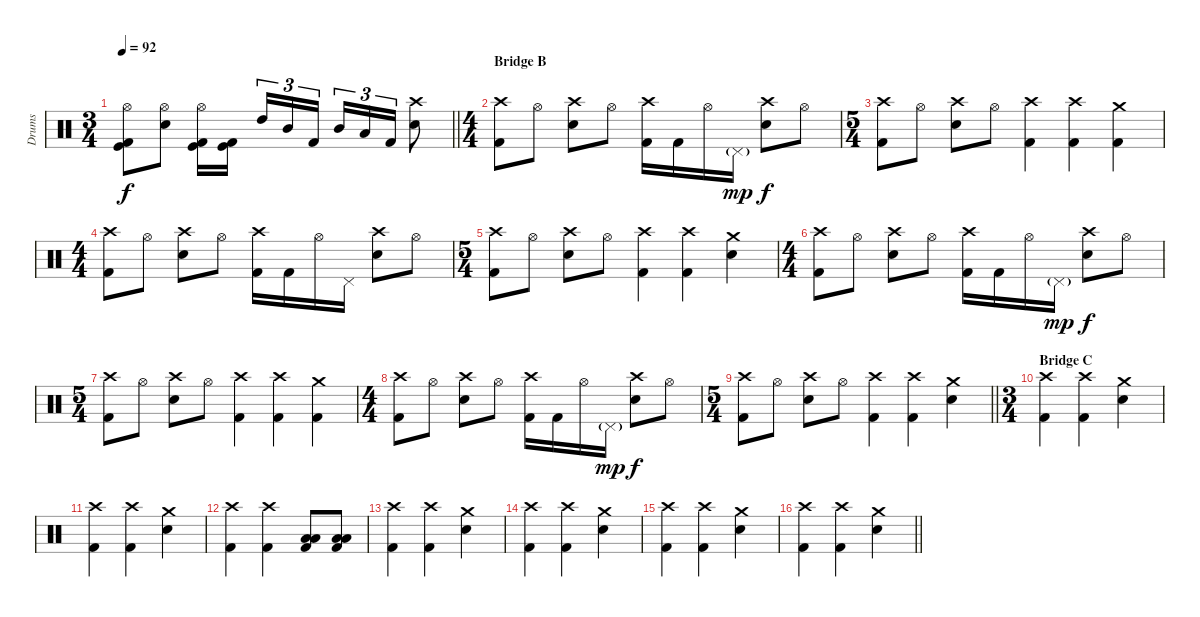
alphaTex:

\track ("Drums" "Drums") {instrument percussion}
\staff {score}
\articulation defaults
\ts (3 4)
\tempo 92
\clef neutral
\barLineRight lightlight
\ks c
("Hi-Hat (open)" "Kick (hit)" "Kick (hit) 2").8{dy f} ("Hi-Hat (open)" "Electric Snare (hit)").8 ("Hi-Hat (open)" "Kick (hit)" "Kick (hit) 2").16 ("Kick (hit)" "Kick (hit) 2").16{beam splitsecondary} "High Tom (hit)".16{tu (3 2)} "Mid Tom (hit)".16{tu (3 2)} "Kick (hit) 2".16{tu (3 2)} "Mid Tom (hit)".16{tu (3 2)} "Low Tom (hit)".16{tu (3 2)} "Kick (hit) 2".16{tu (3 2)} ("Crash high (hit)" "Electric Snare (hit)").8 |
\ts (4 4)
\section ("" "Bridge B")
("Crash high (hit)" "Kick (hit) 2").8 "Hi-Hat (open)".8 ("Crash high (hit)" "Electric Snare (hit)").8 "Hi-Hat (open)".8 ("Crash high (hit)" "Kick (hit) 2").16 "Kick (hit) 2".16 "Hi-Hat (open)".16 "Pedal Hi-Hat (hit)"{g}.16{dy mp} ("Crash high (hit)" "Electric Snare (hit)").8{dy f} "Hi-Hat (open)".8 |
\ts (5 4)
("Crash high (hit)" "Kick (hit) 2").8 "Hi-Hat (open)".8 ("Crash high (hit)" "Electric Snare (hit)").8 "Hi-Hat (open)".8 ("Crash high (hit)" "Kick (hit) 2").4 ("Crash high (hit)" "Kick (hit) 2").4 ("Crash medium (hit)" "Kick (hit) 2").4 |
\ts (4 4)
("Crash high (hit)" "Kick (hit) 2").8 "Hi-Hat (open)".8 ("Crash high (hit)" "Electric Snare (hit)").8 "Hi-Hat (open)".8 ("Crash high (hit)" "Kick (hit) 2").16 "Kick (hit) 2".16 "Hi-Hat (open)".16 "Pedal Hi-Hat (hit)".16 ("Crash high (hit)" "Electric Snare (hit)").8 "Hi-Hat (open)".8 |
\ts (5 4)
("Crash high (hit)" "Kick (hit) 2").8 "Hi-Hat (open)".8 ("Crash high (hit)" "Electric Snare (hit)").8 "Hi-Hat (open)".8 ("Crash high (hit)" "Kick (hit) 2").4 ("Crash high (hit)" "Kick (hit) 2").4 ("Crash medium (hit)" "Electric Snare (hit)").4 |
\ts (4 4)
("Crash high (hit)" "Kick (hit) 2").8 "Hi-Hat (open)".8 ("Crash high (hit)" "Electric Snare (hit)").8 "Hi-Hat (open)".8 ("Crash high (hit)" "Kick (hit) 2").16 "Kick (hit) 2".16 "Hi-Hat (open)".16 "Pedal Hi-Hat (hit)"{g}.16{dy mp} ("Crash high (hit)" "Electric Snare (hit)").8{dy f} "Hi-Hat (open)".8 |
\ts (5 4)
("Crash high (hit)" "Kick (hit) 2").8 "Hi-Hat (open)".8 ("Crash high (hit)" "Electric Snare (hit)").8 "Hi-Hat (open)".8 ("Crash high (hit)" "Kick (hit) 2").4 ("Crash high (hit)" "Kick (hit) 2").4 ("Crash medium (hit)" "Kick (hit) 2").4 |
\ts (4 4)
("Crash high (hit)" "Kick (hit) 2").8 "Hi-Hat (open)".8 ("Crash high (hit)" "Electric Snare (hit)").8 "Hi-Hat (open)".8 ("Crash high (hit)" "Kick (hit) 2").16 "Kick (hit) 2".16 "Hi-Hat (open)".16 "Pedal Hi-Hat (hit)"{g}.16{dy mp} ("Crash high (hit)" "Electric Snare (hit)").8{dy f} "Hi-Hat (open)".8 |
\ts (5 4)
\barLineRight lightlight
("Crash high (hit)" "Kick (hit) 2").8 "Hi-Hat (open)".8 ("Crash high (hit)" "Electric Snare (hit)").8 "Hi-Hat (open)".8 ("Crash high (hit)" "Kick (hit) 2").4 ("Crash high (hit)" "Kick (hit) 2").4 ("Crash medium (hit)" "Electric Snare (hit)").4 |
\ts (3 4)
\section ("" "Bridge C")
("Crash high (hit)" "Kick (hit) 2").4 ("Crash high (hit)" "Kick (hit) 2").4 ("Crash medium (hit)" "Electric Snare (hit)").4 |
("Crash high (hit)" "Kick (hit) 2").4 ("Crash high (hit)" "Kick (hit) 2").4 ("Crash medium (hit)" "Electric Snare (hit)").4 |
("Crash high (hit)" "Kick (hit) 2").4 ("Crash high (hit)" "Kick (hit) 2").4 ("Low Tom (hit)" "Low Floor Tom (hit)" "Kick (hit) 2").8 ("Low Tom (hit)" "Low Floor Tom (hit)" "Kick (hit) 2").8 |
("Crash high (hit)" "Kick (hit) 2").4 ("Crash high (hit)" "Kick (hit) 2").4 ("Crash medium (hit)" "Electric Snare (hit)").4 |
("Crash high (hit)" "Kick (hit) 2").4 ("Crash high (hit)" "Kick (hit) 2").4 ("Crash medium (hit)" "Electric Snare (hit)").4 |
("Crash high (hit)" "Kick (hit) 2").4 ("Crash high (hit)" "Kick (hit) 2").4 ("Crash medium (hit)" "Electric Snare (hit)").4 |
\barLineRight lightlight
("Crash high (hit)" "Kick (hit) 2").4 ("Crash high (hit)" "Kick (hit) 2").4 ("Crash medium (hit)" "Electric Snare (hit)").4
